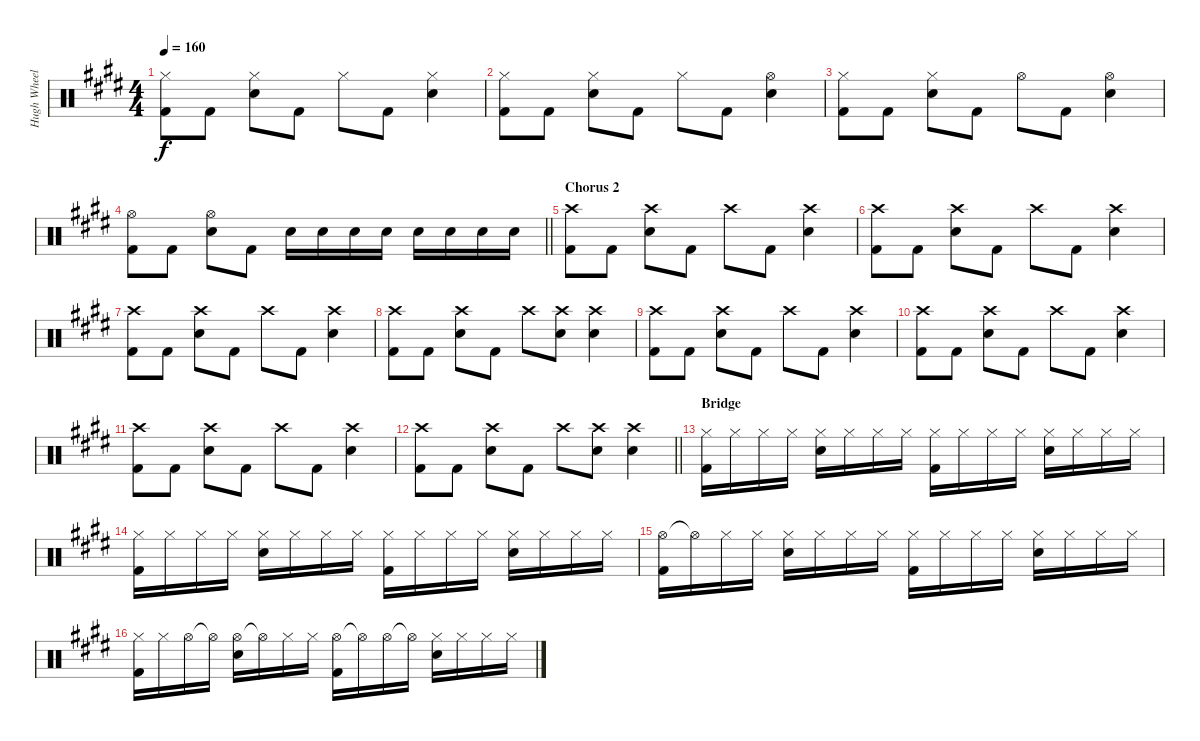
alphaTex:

\track ("Hugh Wheeler - Drums" "Hugh Wheel") {instrument percussion}
\staff {score}
\articulation defaults
\ts (4 4)
\tempo 160
\clef neutral
\ks e
("Hi-Hat (closed)" "Kick (hit) 2").8{dy f} "Kick (hit) 2".8 ("Hi-Hat (closed)" "Electric Snare (hit)").8 "Kick (hit) 2".8 "Hi-Hat (closed)".8 "Kick (hit) 2".8 ("Hi-Hat (closed)" "Electric Snare (hit)").4 |
("Hi-Hat (closed)" "Kick (hit) 2").8 "Kick (hit) 2".8 ("Hi-Hat (closed)" "Electric Snare (hit)").8 "Kick (hit) 2".8 "Hi-Hat (closed)".8 "Kick (hit) 2".8 ("Hi-Hat (open)" "Electric Snare (hit)").4 |
("Hi-Hat (closed)" "Kick (hit) 2").8 "Kick (hit) 2".8 ("Hi-Hat (closed)" "Electric Snare (hit)").8 "Kick (hit) 2".8 "Hi-Hat (open)".8 "Kick (hit) 2".8 ("Hi-Hat (open)" "Electric Snare (hit)").4 |
\barLineRight lightlight
("Hi-Hat (open)" "Kick (hit) 2").8 "Kick (hit) 2".8 ("Hi-Hat (open)" "Electric Snare (hit)").8 "Kick (hit) 2".8 "Electric Snare (hit)".16 "Electric Snare (hit)".16 "Electric Snare (hit)".16 "Electric Snare (hit)".16 "Electric Snare (hit)".16 "Electric Snare (hit)".16 "Electric Snare (hit)".16 "Electric Snare (hit)".16 |
\section ("" "Chorus 2")
("Crash high (hit)" "Kick (hit) 2").8 "Kick (hit) 2".8 ("Crash high (hit)" "Electric Snare (hit)").8 "Kick (hit) 2".8 "Crash high (hit)".8 "Kick (hit) 2".8 ("Crash high (hit)" "Electric Snare (hit)").4 |
("Crash high (hit)" "Kick (hit) 2").8 "Kick (hit) 2".8 ("Crash high (hit)" "Electric Snare (hit)").8 "Kick (hit) 2".8 "Crash high (hit)".8 "Kick (hit) 2".8 ("Crash high (hit)" "Electric Snare (hit)").4 |
("Crash high (hit)" "Kick (hit) 2").8 "Kick (hit) 2".8 ("Crash high (hit)" "Electric Snare (hit)").8 "Kick (hit) 2".8 "Crash high (hit)".8 "Kick (hit) 2".8 ("Crash high (hit)" "Electric Snare (hit)").4 |
("Crash high (hit)" "Kick (hit) 2").8 "Kick (hit) 2".8 ("Crash high (hit)" "Electric Snare (hit)").8 "Kick (hit) 2".8 "Crash high (hit)".8 ("Crash high (hit)" "Electric Snare (hit)").8 ("Crash high (hit)" "Electric Snare (hit)").4 |
("Crash high (hit)" "Kick (hit) 2").8 "Kick (hit) 2".8 ("Crash high (hit)" "Electric Snare (hit)").8 "Kick (hit) 2".8 "Crash high (hit)".8 "Kick (hit) 2".8 ("Crash high (hit)" "Electric Snare (hit)").4 |
("Crash high (hit)" "Kick (hit) 2").8 "Kick (hit) 2".8 ("Crash high (hit)" "Electric Snare (hit)").8 "Kick (hit) 2".8 "Crash high (hit)".8 "Kick (hit) 2".8 ("Crash high (hit)" "Electric Snare (hit)").4 |
("Crash high (hit)" "Kick (hit) 2").8 "Kick (hit) 2".8 ("Crash high (hit)" "Electric Snare (hit)").8 "Kick (hit) 2".8 "Crash high (hit)".8 "Kick (hit) 2".8 ("Crash high (hit)" "Electric Snare (hit)").4 |
\barLineRight lightlight
("Crash high (hit)" "Kick (hit) 2").8 "Kick (hit) 2".8 ("Crash high (hit)" "Electric Snare (hit)").8 "Kick (hit) 2".8 "Crash high (hit)".8 ("Crash high (hit)" "Electric Snare (hit)").8 ("Crash high (hit)" "Electric Snare (hit)").4 |
\section ("" "Bridge")
("Hi-Hat (closed)" "Kick (hit) 2").16 "Hi-Hat (closed)".16 "Hi-Hat (closed)".16 "Hi-Hat (closed)".16 ("Hi-Hat (closed)" "Electric Snare (hit)").16 "Hi-Hat (closed)".16 "Hi-Hat (closed)".16 "Hi-Hat (closed)".16 ("Hi-Hat (closed)" "Kick (hit) 2").16 "Hi-Hat (closed)".16 "Hi-Hat (closed)".16 "Hi-Hat (closed)".16 ("Hi-Hat (closed)" "Electric Snare (hit)").16 "Hi-Hat (closed)".16 "Hi-Hat (closed)".16 "Hi-Hat (closed)".16 |
("Hi-Hat (closed)" "Kick (hit) 2").16 "Hi-Hat (closed)".16 "Hi-Hat (closed)".16 "Hi-Hat (closed)".16 ("Hi-Hat (closed)" "Electric Snare (hit)").16 "Hi-Hat (closed)".16 "Hi-Hat (closed)".16 "Hi-Hat (closed)".16 ("Hi-Hat (closed)" "Kick (hit) 2").16 "Hi-Hat (closed)".16 "Hi-Hat (closed)".16 "Hi-Hat (closed)".16 ("Hi-Hat (closed)" "Electric Snare (hit)").16 "Hi-Hat (closed)".16 "Hi-Hat (closed)".16 "Hi-Hat (closed)".16 |
("Hi-Hat (open)" "Kick (hit) 2").16 "Hi-Hat (open)"{t}.16 "Hi-Hat (closed)".16 "Hi-Hat (closed)".16 ("Hi-Hat (closed)" "Electric Snare (hit)").16 "Hi-Hat (closed)".16 "Hi-Hat (closed)".16 "Hi-Hat (closed)".16 ("Hi-Hat (closed)" "Kick (hit) 2").16 "Hi-Hat (closed)".16 "Hi-Hat (closed)".16 "Hi-Hat (closed)".16 ("Hi-Hat (closed)" "Electric Snare (hit)").16 "Hi-Hat (closed)".16 "Hi-Hat (closed)".16 "Hi-Hat (closed)".16 |
("Hi-Hat (closed)" "Kick (hit) 2").16 "Hi-Hat (closed)".16 "Hi-Hat (open)".16 "Hi-Hat (open)"{t}.16 ("Hi-Hat (open)" "Electric Snare (hit)").16 "Hi-Hat (open)"{t}.16 "Hi-Hat (closed)".16 "Hi-Hat (closed)".16 ("Hi-Hat (open)" "Kick (hit) 2").16 "Hi-Hat (open)"{t}.16 "Hi-Hat (open)".16 "Hi-Hat (open)"{t}.16 ("Hi-Hat (closed)" "Electric Snare (hit)").16 "Hi-Hat (closed)".16 "Hi-Hat (closed)".16 "Hi-Hat (closed)".16
